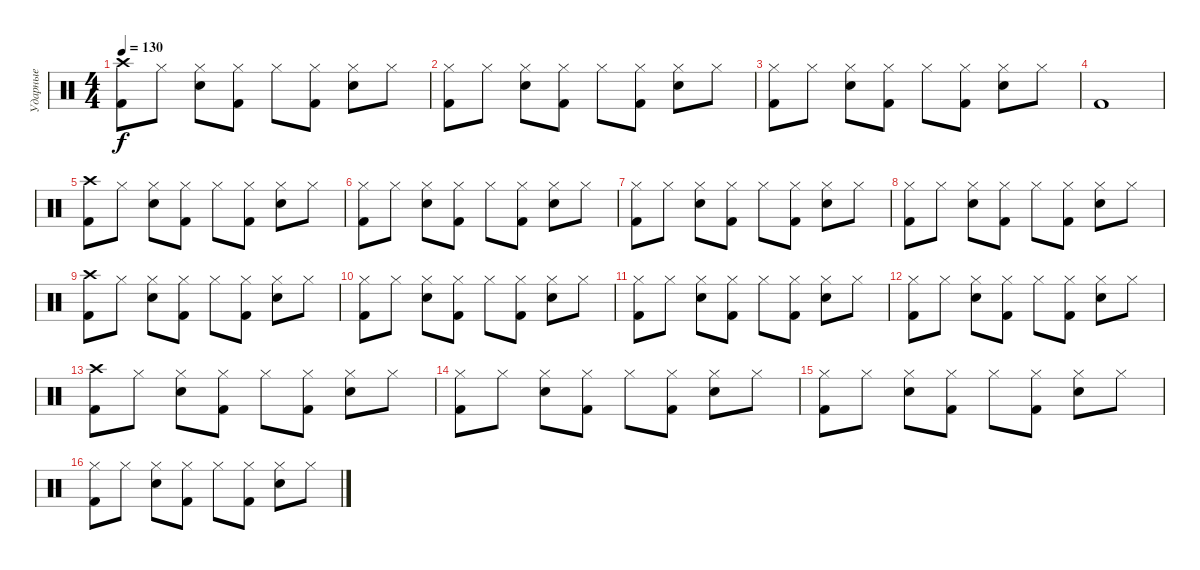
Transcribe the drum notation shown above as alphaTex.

\track ("Ударные" "Ударные") {instrument percussion}
\staff {score}
\articulation defaults
\ts (4 4)
\tempo 130
\clef neutral
\ks c
("Crash high (hit)" "Kick (hit) 2").8{dy f} "Hi-Hat (closed)".8 ("Hi-Hat (closed)" "Snare (hit) 2").8 ("Hi-Hat (closed)" "Kick (hit) 2").8 "Hi-Hat (closed)".8 ("Hi-Hat (closed)" "Kick (hit) 2").8 ("Hi-Hat (closed)" "Snare (hit) 2").8 "Hi-Hat (closed)".8 |
("Hi-Hat (closed)" "Kick (hit) 2").8 "Hi-Hat (closed)".8 ("Hi-Hat (closed)" "Snare (hit) 2").8 ("Hi-Hat (closed)" "Kick (hit) 2").8 "Hi-Hat (closed)".8 ("Hi-Hat (closed)" "Kick (hit) 2").8 ("Hi-Hat (closed)" "Snare (hit) 2").8 "Hi-Hat (closed)".8 |
("Hi-Hat (closed)" "Kick (hit) 2").8 "Hi-Hat (closed)".8 ("Hi-Hat (closed)" "Snare (hit) 2").8 ("Hi-Hat (closed)" "Kick (hit) 2").8 "Hi-Hat (closed)".8 ("Hi-Hat (closed)" "Kick (hit) 2").8 ("Hi-Hat (closed)" "Snare (hit) 2").8 "Hi-Hat (closed)".8 |
"Kick (hit) 2".1 |
("Crash high (hit)" "Kick (hit) 2").8 "Hi-Hat (closed)".8 ("Hi-Hat (closed)" "Snare (hit) 2").8 ("Hi-Hat (closed)" "Kick (hit) 2").8 "Hi-Hat (closed)".8 ("Hi-Hat (closed)" "Kick (hit) 2").8 ("Hi-Hat (closed)" "Snare (hit) 2").8 "Hi-Hat (closed)".8 |
("Hi-Hat (closed)" "Kick (hit) 2").8 "Hi-Hat (closed)".8 ("Hi-Hat (closed)" "Snare (hit) 2").8 ("Hi-Hat (closed)" "Kick (hit) 2").8 "Hi-Hat (closed)".8 ("Hi-Hat (closed)" "Kick (hit) 2").8 ("Hi-Hat (closed)" "Snare (hit) 2").8 "Hi-Hat (closed)".8 |
("Hi-Hat (closed)" "Kick (hit) 2").8 "Hi-Hat (closed)".8 ("Hi-Hat (closed)" "Snare (hit) 2").8 ("Hi-Hat (closed)" "Kick (hit) 2").8 "Hi-Hat (closed)".8 ("Hi-Hat (closed)" "Kick (hit) 2").8 ("Hi-Hat (closed)" "Snare (hit) 2").8 "Hi-Hat (closed)".8 |
("Hi-Hat (closed)" "Kick (hit) 2").8 "Hi-Hat (closed)".8 ("Hi-Hat (closed)" "Snare (hit) 2").8 ("Hi-Hat (closed)" "Kick (hit) 2").8 "Hi-Hat (closed)".8 ("Hi-Hat (closed)" "Kick (hit) 2").8 ("Hi-Hat (closed)" "Snare (hit) 2").8 "Hi-Hat (closed)".8 |
("Crash high (hit)" "Kick (hit) 2").8 "Hi-Hat (closed)".8 ("Hi-Hat (closed)" "Snare (hit) 2").8 ("Hi-Hat (closed)" "Kick (hit) 2").8 "Hi-Hat (closed)".8 ("Hi-Hat (closed)" "Kick (hit) 2").8 ("Hi-Hat (closed)" "Snare (hit) 2").8 "Hi-Hat (closed)".8 |
("Hi-Hat (closed)" "Kick (hit) 2").8 "Hi-Hat (closed)".8 ("Hi-Hat (closed)" "Snare (hit) 2").8 ("Hi-Hat (closed)" "Kick (hit) 2").8 "Hi-Hat (closed)".8 ("Hi-Hat (closed)" "Kick (hit) 2").8 ("Hi-Hat (closed)" "Snare (hit) 2").8 "Hi-Hat (closed)".8 |
("Hi-Hat (closed)" "Kick (hit) 2").8 "Hi-Hat (closed)".8 ("Hi-Hat (closed)" "Snare (hit) 2").8 ("Hi-Hat (closed)" "Kick (hit) 2").8 "Hi-Hat (closed)".8 ("Hi-Hat (closed)" "Kick (hit) 2").8 ("Hi-Hat (closed)" "Snare (hit) 2").8 "Hi-Hat (closed)".8 |
("Hi-Hat (closed)" "Kick (hit) 2").8 "Hi-Hat (closed)".8 ("Hi-Hat (closed)" "Snare (hit) 2").8 ("Hi-Hat (closed)" "Kick (hit) 2").8 "Hi-Hat (closed)".8 ("Hi-Hat (closed)" "Kick (hit) 2").8 ("Hi-Hat (closed)" "Snare (hit) 2").8 "Hi-Hat (closed)".8 |
("Crash high (hit)" "Kick (hit) 2").8 "Hi-Hat (closed)".8 ("Hi-Hat (closed)" "Snare (hit) 2").8 ("Hi-Hat (closed)" "Kick (hit) 2").8 "Hi-Hat (closed)".8 ("Hi-Hat (closed)" "Kick (hit) 2").8 ("Hi-Hat (closed)" "Snare (hit) 2").8 "Hi-Hat (closed)".8 |
("Hi-Hat (closed)" "Kick (hit) 2").8 "Hi-Hat (closed)".8 ("Hi-Hat (closed)" "Snare (hit) 2").8 ("Hi-Hat (closed)" "Kick (hit) 2").8 "Hi-Hat (closed)".8 ("Hi-Hat (closed)" "Kick (hit) 2").8 ("Hi-Hat (closed)" "Snare (hit) 2").8 "Hi-Hat (closed)".8 |
("Hi-Hat (closed)" "Kick (hit) 2").8 "Hi-Hat (closed)".8 ("Hi-Hat (closed)" "Snare (hit) 2").8 ("Hi-Hat (closed)" "Kick (hit) 2").8 "Hi-Hat (closed)".8 ("Hi-Hat (closed)" "Kick (hit) 2").8 ("Hi-Hat (closed)" "Snare (hit) 2").8 "Hi-Hat (closed)".8 |
("Hi-Hat (closed)" "Kick (hit) 2").8 "Hi-Hat (closed)".8 ("Hi-Hat (closed)" "Snare (hit) 2").8 ("Hi-Hat (closed)" "Kick (hit) 2").8 "Hi-Hat (closed)".8 ("Hi-Hat (closed)" "Kick (hit) 2").8 ("Hi-Hat (closed)" "Snare (hit) 2").8 "Hi-Hat (closed)".8
